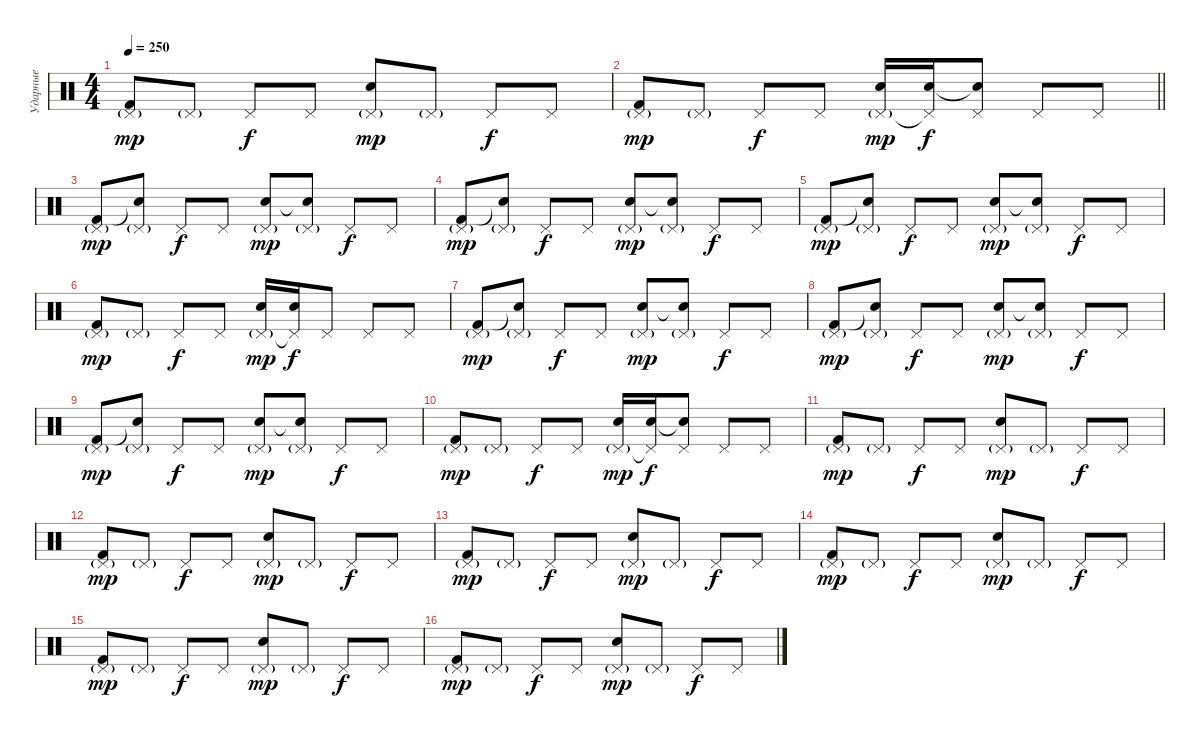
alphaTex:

\track ("Ударные" "Ударные") {instrument percussion}
\staff {score}
\articulation defaults
\ts (4 4)
\tempo 250
\clef neutral
\ks c
("Pedal Hi-Hat (hit)"{g} "Kick (hit) 2").8{dy mp} "Pedal Hi-Hat (hit)"{g}.8 "Pedal Hi-Hat (hit)".8{dy f} "Pedal Hi-Hat (hit)".8 ("Pedal Hi-Hat (hit)"{g} "Electric Snare (hit)").8{dy mp} "Pedal Hi-Hat (hit)"{g}.8 "Pedal Hi-Hat (hit)".8{dy f} "Pedal Hi-Hat (hit)".8 |
\barLineRight lightlight
("Pedal Hi-Hat (hit)"{g} "Kick (hit) 2").8{dy mp} "Pedal Hi-Hat (hit)"{g}.8 "Pedal Hi-Hat (hit)".8{dy f} "Pedal Hi-Hat (hit)".8 ("Pedal Hi-Hat (hit)"{g} "Electric Snare (hit)").16{dy mp} ("Pedal Hi-Hat (hit)"{t} "Electric Snare (hit)").16{dy f} ("Pedal Hi-Hat (hit)" "Snare (hit)"{t}).8 "Pedal Hi-Hat (hit)".8 "Pedal Hi-Hat (hit)".8 |
("Pedal Hi-Hat (hit)"{g} "Kick (hit) 2").8{dy mp} ("Pedal Hi-Hat (hit)"{g} "Snare (hit)"{t}).8 "Pedal Hi-Hat (hit)".8{dy f} "Pedal Hi-Hat (hit)".8 ("Pedal Hi-Hat (hit)"{g} "Electric Snare (hit)").8{dy mp} ("Pedal Hi-Hat (hit)"{g} "Snare (hit)"{t}).8 "Pedal Hi-Hat (hit)".8{dy f} "Pedal Hi-Hat (hit)".8 |
("Pedal Hi-Hat (hit)"{g} "Kick (hit) 2").8{dy mp} ("Pedal Hi-Hat (hit)"{g} "Snare (hit)"{t}).8 "Pedal Hi-Hat (hit)".8{dy f} "Pedal Hi-Hat (hit)".8 ("Pedal Hi-Hat (hit)"{g} "Electric Snare (hit)").8{dy mp} ("Pedal Hi-Hat (hit)"{g} "Snare (hit)"{t}).8 "Pedal Hi-Hat (hit)".8{dy f} "Pedal Hi-Hat (hit)".8 |
("Pedal Hi-Hat (hit)"{g} "Kick (hit) 2").8{dy mp} ("Pedal Hi-Hat (hit)"{g} "Snare (hit)"{t}).8 "Pedal Hi-Hat (hit)".8{dy f} "Pedal Hi-Hat (hit)".8 ("Pedal Hi-Hat (hit)"{g} "Electric Snare (hit)").8{dy mp} ("Pedal Hi-Hat (hit)"{g} "Snare (hit)"{t}).8 "Pedal Hi-Hat (hit)".8{dy f} "Pedal Hi-Hat (hit)".8 |
("Pedal Hi-Hat (hit)"{g} "Kick (hit) 2").8{dy mp} "Pedal Hi-Hat (hit)"{g}.8 "Pedal Hi-Hat (hit)".8{dy f} "Pedal Hi-Hat (hit)".8 ("Pedal Hi-Hat (hit)"{g} "Electric Snare (hit)").16{dy mp} ("Pedal Hi-Hat (hit)"{t} "Electric Snare (hit)").16{dy f} "Pedal Hi-Hat (hit)".8 "Pedal Hi-Hat (hit)".8 "Pedal Hi-Hat (hit)".8 |
("Pedal Hi-Hat (hit)"{g} "Kick (hit) 2").8{dy mp} ("Pedal Hi-Hat (hit)"{g} "Snare (hit)"{t}).8 "Pedal Hi-Hat (hit)".8{dy f} "Pedal Hi-Hat (hit)".8 ("Pedal Hi-Hat (hit)"{g} "Electric Snare (hit)").8{dy mp} ("Pedal Hi-Hat (hit)"{g} "Snare (hit)"{t}).8 "Pedal Hi-Hat (hit)".8{dy f} "Pedal Hi-Hat (hit)".8 |
("Pedal Hi-Hat (hit)"{g} "Kick (hit) 2").8{dy mp} ("Pedal Hi-Hat (hit)"{g} "Snare (hit)"{t}).8 "Pedal Hi-Hat (hit)".8{dy f} "Pedal Hi-Hat (hit)".8 ("Pedal Hi-Hat (hit)"{g} "Electric Snare (hit)").8{dy mp} ("Pedal Hi-Hat (hit)"{g} "Snare (hit)"{t}).8 "Pedal Hi-Hat (hit)".8{dy f} "Pedal Hi-Hat (hit)".8 |
("Pedal Hi-Hat (hit)"{g} "Kick (hit) 2").8{dy mp} ("Pedal Hi-Hat (hit)"{g} "Snare (hit)"{t}).8 "Pedal Hi-Hat (hit)".8{dy f} "Pedal Hi-Hat (hit)".8 ("Pedal Hi-Hat (hit)"{g} "Electric Snare (hit)").8{dy mp} ("Pedal Hi-Hat (hit)"{g} "Snare (hit)"{t}).8 "Pedal Hi-Hat (hit)".8{dy f} "Pedal Hi-Hat (hit)".8 |
("Pedal Hi-Hat (hit)"{g} "Kick (hit) 2").8{dy mp} "Pedal Hi-Hat (hit)"{g}.8 "Pedal Hi-Hat (hit)".8{dy f} "Pedal Hi-Hat (hit)".8 ("Pedal Hi-Hat (hit)"{g} "Electric Snare (hit)").16{dy mp} ("Pedal Hi-Hat (hit)"{t} "Electric Snare (hit)").16{dy f} ("Pedal Hi-Hat (hit)" "Snare (hit)"{t}).8 "Pedal Hi-Hat (hit)".8 "Pedal Hi-Hat (hit)".8 |
("Pedal Hi-Hat (hit)"{g} "Kick (hit) 2").8{dy mp} "Pedal Hi-Hat (hit)"{g}.8 "Pedal Hi-Hat (hit)".8{dy f} "Pedal Hi-Hat (hit)".8 ("Pedal Hi-Hat (hit)"{g} "Electric Snare (hit)").8{dy mp} "Pedal Hi-Hat (hit)"{g}.8 "Pedal Hi-Hat (hit)".8{dy f} "Pedal Hi-Hat (hit)".8 |
("Pedal Hi-Hat (hit)"{g} "Kick (hit) 2").8{dy mp} "Pedal Hi-Hat (hit)"{g}.8 "Pedal Hi-Hat (hit)".8{dy f} "Pedal Hi-Hat (hit)".8 ("Pedal Hi-Hat (hit)"{g} "Electric Snare (hit)").8{dy mp} "Pedal Hi-Hat (hit)"{g}.8 "Pedal Hi-Hat (hit)".8{dy f} "Pedal Hi-Hat (hit)".8 |
("Pedal Hi-Hat (hit)"{g} "Kick (hit) 2").8{dy mp} "Pedal Hi-Hat (hit)"{g}.8 "Pedal Hi-Hat (hit)".8{dy f} "Pedal Hi-Hat (hit)".8 ("Pedal Hi-Hat (hit)"{g} "Electric Snare (hit)").8{dy mp} "Pedal Hi-Hat (hit)"{g}.8 "Pedal Hi-Hat (hit)".8{dy f} "Pedal Hi-Hat (hit)".8 |
("Pedal Hi-Hat (hit)"{g} "Kick (hit) 2").8{dy mp} "Pedal Hi-Hat (hit)"{g}.8 "Pedal Hi-Hat (hit)".8{dy f} "Pedal Hi-Hat (hit)".8 ("Pedal Hi-Hat (hit)"{g} "Electric Snare (hit)").8{dy mp} "Pedal Hi-Hat (hit)"{g}.8 "Pedal Hi-Hat (hit)".8{dy f} "Pedal Hi-Hat (hit)".8 |
("Pedal Hi-Hat (hit)"{g} "Kick (hit) 2").8{dy mp} "Pedal Hi-Hat (hit)"{g}.8 "Pedal Hi-Hat (hit)".8{dy f} "Pedal Hi-Hat (hit)".8 ("Pedal Hi-Hat (hit)"{g} "Electric Snare (hit)").8{dy mp} "Pedal Hi-Hat (hit)"{g}.8 "Pedal Hi-Hat (hit)".8{dy f} "Pedal Hi-Hat (hit)".8 |
("Pedal Hi-Hat (hit)"{g} "Kick (hit) 2").8{dy mp} "Pedal Hi-Hat (hit)"{g}.8 "Pedal Hi-Hat (hit)".8{dy f} "Pedal Hi-Hat (hit)".8 ("Pedal Hi-Hat (hit)"{g} "Electric Snare (hit)").8{dy mp} "Pedal Hi-Hat (hit)"{g}.8 "Pedal Hi-Hat (hit)".8{dy f} "Pedal Hi-Hat (hit)".8
